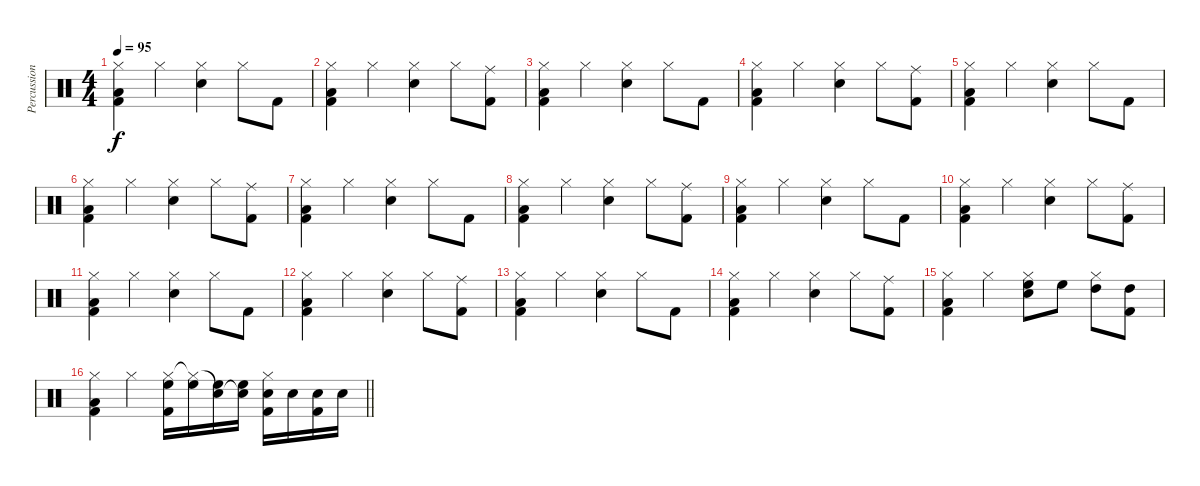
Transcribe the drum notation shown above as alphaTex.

\track ("Percussion" "Percussion") {instrument percussion}
\staff {score}
\articulation defaults
\ts (4 4)
\tempo 95
\clef neutral
\ks c
("Hi-Hat (closed)" "Low Tom (hit)" "Kick (hit) 2").4{dy f} "Hi-Hat (closed)".4 ("Hi-Hat (closed)" "Snare (hit) 2").4 "Hi-Hat (closed)".8 "Kick (hit) 2".8 |
("Hi-Hat (closed)" "Low Tom (hit)" "Kick (hit) 2").4 "Hi-Hat (closed)".4 ("Hi-Hat (closed)" "Snare (hit) 2").4 "Hi-Hat (closed)".8 ("Ride (middle)" "Kick (hit) 2").8 |
("Hi-Hat (closed)" "Low Tom (hit)" "Kick (hit) 2").4 "Hi-Hat (closed)".4 ("Hi-Hat (closed)" "Snare (hit) 2").4 "Hi-Hat (closed)".8 "Kick (hit) 2".8 |
("Hi-Hat (closed)" "Low Tom (hit)" "Kick (hit) 2").4 "Hi-Hat (closed)".4 ("Hi-Hat (closed)" "Snare (hit) 2").4 "Hi-Hat (closed)".8 ("Ride (middle)" "Kick (hit) 2").8 |
("Hi-Hat (closed)" "Low Tom (hit)" "Kick (hit) 2").4 "Hi-Hat (closed)".4 ("Hi-Hat (closed)" "Snare (hit) 2").4 "Hi-Hat (closed)".8 "Kick (hit) 2".8 |
("Hi-Hat (closed)" "Low Tom (hit)" "Kick (hit) 2").4 "Hi-Hat (closed)".4 ("Hi-Hat (closed)" "Snare (hit) 2").4 "Hi-Hat (closed)".8 ("Ride (middle)" "Kick (hit) 2").8 |
("Hi-Hat (closed)" "Low Tom (hit)" "Kick (hit) 2").4 "Hi-Hat (closed)".4 ("Hi-Hat (closed)" "Snare (hit) 2").4 "Hi-Hat (closed)".8 "Kick (hit) 2".8 |
("Hi-Hat (closed)" "Low Tom (hit)" "Kick (hit) 2").4 "Hi-Hat (closed)".4 ("Hi-Hat (closed)" "Snare (hit) 2").4 "Hi-Hat (closed)".8 ("Ride (middle)" "Kick (hit) 2").8 |
("Hi-Hat (closed)" "Low Tom (hit)" "Kick (hit) 2").4 "Hi-Hat (closed)".4 ("Hi-Hat (closed)" "Snare (hit) 2").4 "Hi-Hat (closed)".8 "Kick (hit) 2".8 |
("Hi-Hat (closed)" "Low Tom (hit)" "Kick (hit) 2").4 "Hi-Hat (closed)".4 ("Hi-Hat (closed)" "Snare (hit) 2").4 "Hi-Hat (closed)".8 ("Ride (middle)" "Kick (hit) 2").8 |
("Hi-Hat (closed)" "Low Tom (hit)" "Kick (hit) 2").4 "Hi-Hat (closed)".4 ("Hi-Hat (closed)" "Snare (hit) 2").4 "Hi-Hat (closed)".8 "Kick (hit) 2".8 |
("Hi-Hat (closed)" "Low Tom (hit)" "Kick (hit) 2").4 "Hi-Hat (closed)".4 ("Hi-Hat (closed)" "Snare (hit) 2").4 "Hi-Hat (closed)".8 ("Ride (middle)" "Kick (hit) 2").8 |
("Hi-Hat (closed)" "Low Tom (hit)" "Kick (hit) 2").4 "Hi-Hat (closed)".4 ("Hi-Hat (closed)" "Snare (hit) 2").4 "Hi-Hat (closed)".8 "Kick (hit) 2".8 |
("Hi-Hat (closed)" "Low Tom (hit)" "Kick (hit) 2").4 "Hi-Hat (closed)".4 ("Hi-Hat (closed)" "Snare (hit) 2").4 "Hi-Hat (closed)".8 ("Ride (middle)" "Kick (hit) 2").8 |
("Hi-Hat (closed)" "Low Tom (hit)" "Kick (hit) 2").4 "Hi-Hat (closed)".4 ("Hi-Hat (closed)" "High Floor Tom (hit)" "Snare (hit) 2").8 "High Floor Tom (hit)".8 ("Hi-Hat (closed)" "High Tom (hit)").8 ("High Tom (hit)" "Kick (hit) 2").8 |
\barLineRight lightlight
("Hi-Hat (closed)" "Low Tom (hit)" "Kick (hit) 2").4 "Hi-Hat (closed)".4 ("Hi-Hat (closed)" "High Floor Tom (hit)" "Kick (hit) 2").16 ("Hi-Hat (closed)"{t} "High Floor Tom (hit)").16 ("Snare (hit)"{t} "High Floor Tom (hit)").16 ("Snare (hit)"{t} "High Floor Tom (hit)").16 ("Hi-Hat (closed)" "Snare (hit) 2" "Kick (hit) 2").16 "Snare (hit) 2".16 ("Snare (hit) 2" "Kick (hit) 2").16 "Snare (hit) 2".16
